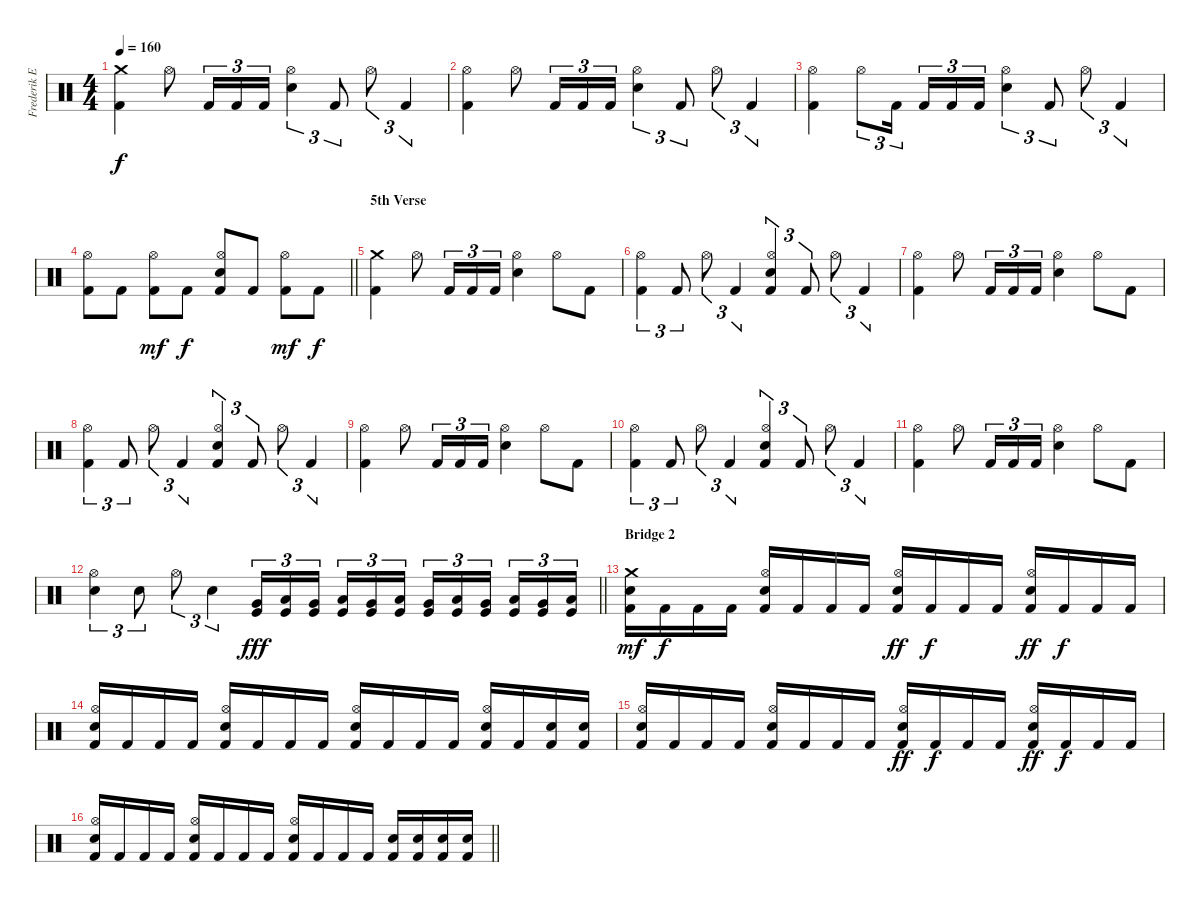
\track ("Frederik Ehmke" "Frederik E") {instrument percussion}
\staff {score}
\articulation defaults
\ts (4 4)
\tempo 160
\clef neutral
\ks c
("Crash medium (hit)" "Kick (hit) 2").4{dy f} "Hi-Hat (open)".8 "Kick (hit) 2".16{tu (3 2)} "Kick (hit) 2".16{tu (3 2)} "Kick (hit) 2".16{tu (3 2)} ("Hi-Hat (open)" "Electric Snare (hit)").4{tu (3 2)} "Kick (hit) 2".8{tu (3 2)} "Hi-Hat (open)".8{tu (3 2)} "Kick (hit) 2".4{tu (3 2)} |
("Hi-Hat (open)" "Kick (hit) 2").4 "Hi-Hat (open)".8 "Kick (hit) 2".16{tu (3 2)} "Kick (hit) 2".16{tu (3 2)} "Kick (hit) 2".16{tu (3 2)} ("Hi-Hat (open)" "Electric Snare (hit)").4{tu (3 2)} "Kick (hit) 2".8{tu (3 2)} "Hi-Hat (open)".8{tu (3 2)} "Kick (hit) 2".4{tu (3 2)} |
("Hi-Hat (open)" "Kick (hit) 2").4 "Hi-Hat (open)".8{tu (3 2)} "Kick (hit) 2".16{tu (3 2) beam splitsecondary} "Kick (hit) 2".16{tu (3 2)} "Kick (hit) 2".16{tu (3 2)} "Kick (hit) 2".16{tu (3 2)} ("Hi-Hat (open)" "Electric Snare (hit)").4{tu (3 2)} "Kick (hit) 2".8{tu (3 2)} "Hi-Hat (open)".8{tu (3 2)} "Kick (hit) 2".4{tu (3 2)} |
\barLineRight lightlight
("Hi-Hat (open)" "Kick (hit) 2").8 "Kick (hit) 2".8 ("Hi-Hat (open)" "Kick (hit) 2").8{dy mf} "Kick (hit) 2".8{dy f} ("Hi-Hat (open)" "Electric Snare (hit)" "Kick (hit) 2").8 "Kick (hit) 2".8 ("Hi-Hat (open)" "Kick (hit) 2").8{dy mf} "Kick (hit) 2".8{dy f} |
\section ("" "5th Verse")
("Crash medium (hit)" "Kick (hit) 2").4 "Hi-Hat (open)".8 "Kick (hit) 2".16{tu (3 2)} "Kick (hit) 2".16{tu (3 2)} "Kick (hit) 2".16{tu (3 2)} ("Hi-Hat (open)" "Electric Snare (hit)").4 "Hi-Hat (open)".8 "Kick (hit) 2".8 |
("Hi-Hat (open)" "Kick (hit) 2").4{tu (3 2)} "Kick (hit) 2".8{tu (3 2)} "Hi-Hat (open)".8{tu (3 2)} "Kick (hit) 2".4{tu (3 2)} ("Hi-Hat (open)" "Electric Snare (hit)" "Kick (hit) 2").4{tu (3 2)} "Kick (hit) 2".8{tu (3 2)} "Hi-Hat (open)".8{tu (3 2)} "Kick (hit) 2".4{tu (3 2)} |
("Hi-Hat (open)" "Kick (hit) 2").4 "Hi-Hat (open)".8 "Kick (hit) 2".16{tu (3 2)} "Kick (hit) 2".16{tu (3 2)} "Kick (hit) 2".16{tu (3 2)} ("Hi-Hat (open)" "Electric Snare (hit)").4 "Hi-Hat (open)".8 "Kick (hit) 2".8 |
("Hi-Hat (open)" "Kick (hit) 2").4{tu (3 2)} "Kick (hit) 2".8{tu (3 2)} "Hi-Hat (open)".8{tu (3 2)} "Kick (hit) 2".4{tu (3 2)} ("Hi-Hat (open)" "Electric Snare (hit)" "Kick (hit) 2").4{tu (3 2)} "Kick (hit) 2".8{tu (3 2)} "Hi-Hat (open)".8{tu (3 2)} "Kick (hit) 2".4{tu (3 2)} |
("Hi-Hat (open)" "Kick (hit) 2").4 "Hi-Hat (open)".8 "Kick (hit) 2".16{tu (3 2)} "Kick (hit) 2".16{tu (3 2)} "Kick (hit) 2".16{tu (3 2)} ("Hi-Hat (open)" "Electric Snare (hit)").4 "Hi-Hat (open)".8 "Kick (hit) 2".8 |
("Hi-Hat (open)" "Kick (hit) 2").4{tu (3 2)} "Kick (hit) 2".8{tu (3 2)} "Hi-Hat (open)".8{tu (3 2)} "Kick (hit) 2".4{tu (3 2)} ("Hi-Hat (open)" "Electric Snare (hit)" "Kick (hit) 2").4{tu (3 2)} "Kick (hit) 2".8{tu (3 2)} "Hi-Hat (open)".8{tu (3 2)} "Kick (hit) 2".4{tu (3 2)} |
("Hi-Hat (open)" "Kick (hit) 2").4 "Hi-Hat (open)".8 "Kick (hit) 2".16{tu (3 2)} "Kick (hit) 2".16{tu (3 2)} "Kick (hit) 2".16{tu (3 2)} ("Hi-Hat (open)" "Electric Snare (hit)").4 "Hi-Hat (open)".8 "Kick (hit) 2".8 |
\barLineRight lightlight
("Hi-Hat (open)" "Electric Snare (hit)").4{tu (3 2)} "Electric Snare (hit)".8{tu (3 2)} "Hi-Hat (open)".8{tu (3 2)} "Electric Snare (hit)".4{tu (3 2)} ("Very Low Tom (hit)" "Kick (hit)").16{tu (3 2) dy fff} ("Low Floor Tom (hit)" "Kick (hit)").16{tu (3 2)} ("Very Low Tom (hit)" "Kick (hit)").16{tu (3 2) beam splitsecondary} ("Low Floor Tom (hit)" "Kick (hit)").16{tu (3 2)} ("Very Low Tom (hit)" "Kick (hit)").16{tu (3 2)} ("Low Floor Tom (hit)" "Kick (hit)").16{tu (3 2)} ("Very Low Tom (hit)" "Kick (hit)").16{tu (3 2)} ("Low Floor Tom (hit)" "Kick (hit)").16{tu (3 2)} ("Very Low Tom (hit)" "Kick (hit)").16{tu (3 2) beam splitsecondary} ("Low Floor Tom (hit)" "Kick (hit)").16{tu (3 2)} ("Very Low Tom (hit)" "Kick (hit)").16{tu (3 2)} ("Low Floor Tom (hit)" "Kick (hit)").16{tu (3 2)} |
\section ("" "Bridge 2")
("Crash medium (hit)" "Electric Snare (hit)" "Kick (hit) 2").16{dy mf} "Kick (hit) 2".16{dy f} "Kick (hit) 2".16 "Kick (hit) 2".16 ("Hi-Hat (open)" "Electric Snare (hit)" "Kick (hit) 2").16 "Kick (hit) 2".16 "Kick (hit) 2".16 "Kick (hit) 2".16 ("Hi-Hat (open)" "Electric Snare (hit)" "Kick (hit) 2").16{dy ff} "Kick (hit) 2".16{dy f} "Kick (hit) 2".16 "Kick (hit) 2".16 ("Hi-Hat (open)" "Electric Snare (hit)" "Kick (hit) 2").16{dy ff} "Kick (hit) 2".16{dy f} "Kick (hit) 2".16 "Kick (hit) 2".16 |
("Hi-Hat (open)" "Electric Snare (hit)" "Kick (hit) 2").16 "Kick (hit) 2".16 "Kick (hit) 2".16 "Kick (hit) 2".16 ("Hi-Hat (open)" "Electric Snare (hit)" "Kick (hit) 2").16 "Kick (hit) 2".16 "Kick (hit) 2".16 "Kick (hit) 2".16 ("Hi-Hat (open)" "Electric Snare (hit)" "Kick (hit) 2").16 "Kick (hit) 2".16 "Kick (hit) 2".16 "Kick (hit) 2".16 ("Hi-Hat (open)" "Electric Snare (hit)" "Kick (hit) 2").16 "Kick (hit) 2".16 ("Electric Snare (hit)" "Kick (hit) 2").16 ("Electric Snare (hit)" "Kick (hit) 2").16 |
("Hi-Hat (open)" "Electric Snare (hit)" "Kick (hit) 2").16 "Kick (hit) 2".16 "Kick (hit) 2".16 "Kick (hit) 2".16 ("Hi-Hat (open)" "Electric Snare (hit)" "Kick (hit) 2").16 "Kick (hit) 2".16 "Kick (hit) 2".16 "Kick (hit) 2".16 ("Hi-Hat (open)" "Electric Snare (hit)" "Kick (hit) 2").16{dy ff} "Kick (hit) 2".16{dy f} "Kick (hit) 2".16 "Kick (hit) 2".16 ("Hi-Hat (open)" "Electric Snare (hit)" "Kick (hit) 2").16{dy ff} "Kick (hit) 2".16{dy f} "Kick (hit) 2".16 "Kick (hit) 2".16 |
\barLineRight lightlight
("Hi-Hat (open)" "Electric Snare (hit)" "Kick (hit) 2").16 "Kick (hit) 2".16 "Kick (hit) 2".16 "Kick (hit) 2".16 ("Hi-Hat (open)" "Electric Snare (hit)" "Kick (hit) 2").16 "Kick (hit) 2".16 "Kick (hit) 2".16 "Kick (hit) 2".16 ("Hi-Hat (open)" "Electric Snare (hit)" "Kick (hit) 2").16 "Kick (hit) 2".16 "Kick (hit) 2".16 "Kick (hit) 2".16 ("Electric Snare (hit)" "Kick (hit) 2").16 ("Electric Snare (hit)" "Kick (hit) 2").16 ("Electric Snare (hit)" "Kick (hit) 2").16 ("Electric Snare (hit)" "Kick (hit) 2").16
